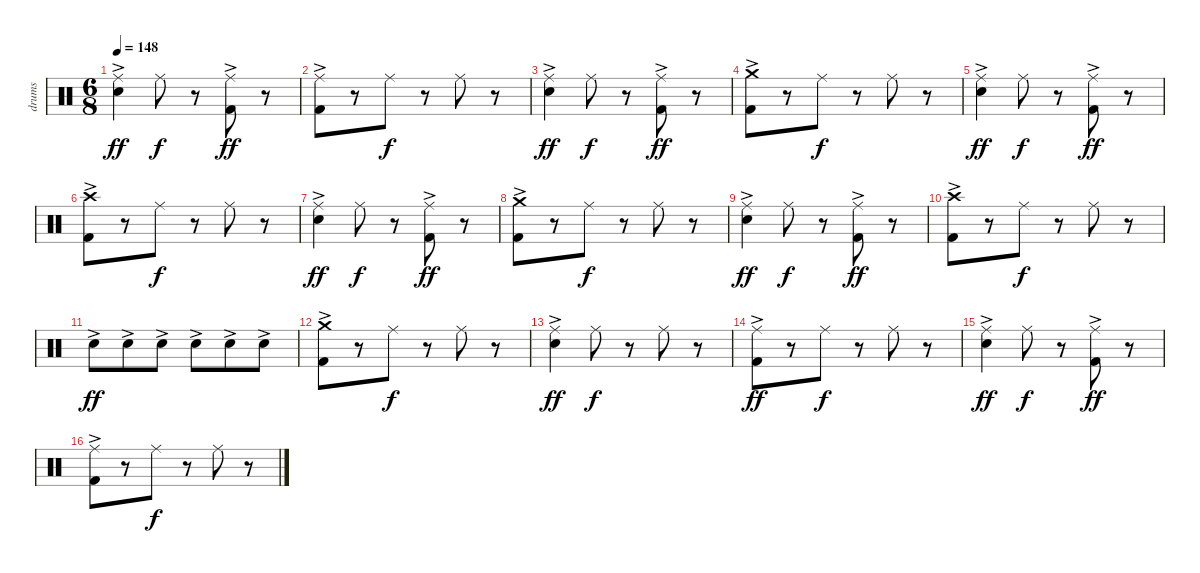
\track ("drums" "drums") {instrument percussion}
\staff {score}
\articulation defaults
\ts (6 8)
\tempo 148
\clef neutral
\ks c
("Ride (middle)" "Electric Snare (hit)"{ac}).4{dy ff} "Ride (middle)".8{dy f} r.8 ("Ride (middle)" "Kick (hit) 2"{ac}).8{dy ff} r.8 |
("Ride (middle)" "Kick (hit) 2"{ac}).8 r.8 "Ride (middle)".8{dy f} r.8 "Ride (middle)".8 r.8 |
("Ride (middle)" "Electric Snare (hit)"{ac}).4{dy ff} "Ride (middle)".8{dy f} r.8 ("Ride (middle)" "Kick (hit) 2"{ac}).8{dy ff} r.8 |
("Crash medium (hit)" "Kick (hit) 2"{ac}).8 r.8 "Ride (middle)".8{dy f} r.8 "Ride (middle)".8 r.8 |
("Ride (middle)" "Electric Snare (hit)"{ac}).4{dy ff} "Ride (middle)".8{dy f} r.8 ("Ride (middle)" "Kick (hit) 2"{ac}).8{dy ff} r.8 |
("Crash high (hit)" "Kick (hit) 2"{ac}).8 r.8 "Ride (middle)".8{dy f} r.8 "Ride (middle)".8 r.8 |
("Ride (middle)" "Electric Snare (hit)"{ac}).4{dy ff} "Ride (middle)".8{dy f} r.8 ("Ride (middle)" "Kick (hit) 2"{ac}).8{dy ff} r.8 |
("Crash medium (hit)" "Kick (hit) 2"{ac}).8 r.8 "Ride (middle)".8{dy f} r.8 "Ride (middle)".8 r.8 |
("Ride (middle)" "Electric Snare (hit)"{ac}).4{dy ff} "Ride (middle)".8{dy f} r.8 ("Ride (middle)" "Kick (hit) 2"{ac}).8{dy ff} r.8 |
("Crash high (hit)" "Kick (hit) 2"{ac}).8 r.8 "Ride (middle)".8{dy f} r.8 "Ride (middle)".8 r.8 |
"Electric Snare (hit)"{ac}.8{dy ff} "Electric Snare (hit)"{ac}.8 "Electric Snare (hit)"{ac}.8 "Electric Snare (hit)"{ac}.8 "Electric Snare (hit)"{ac}.8 "Electric Snare (hit)"{ac}.8 |
("Crash medium (hit)" "Kick (hit) 2"{ac}).8 r.8 "Ride (middle)".8{dy f} r.8 "Ride (middle)".8 r.8 |
("Ride (middle)" "Electric Snare (hit)"{ac}).4{dy ff} "Ride (middle)".8{dy f} r.8 "Ride (middle)".8 r.8 |
("Ride (middle)" "Kick (hit) 2"{ac}).8{dy ff} r.8 "Ride (middle)".8{dy f} r.8 "Ride (middle)".8 r.8 |
("Ride (middle)" "Electric Snare (hit)"{ac}).4{dy ff} "Ride (middle)".8{dy f} r.8 ("Ride (middle)" "Kick (hit) 2"{ac}).8{dy ff} r.8 |
("Ride (middle)" "Kick (hit) 2"{ac}).8 r.8 "Ride (middle)".8{dy f} r.8 "Ride (middle)".8 r.8
